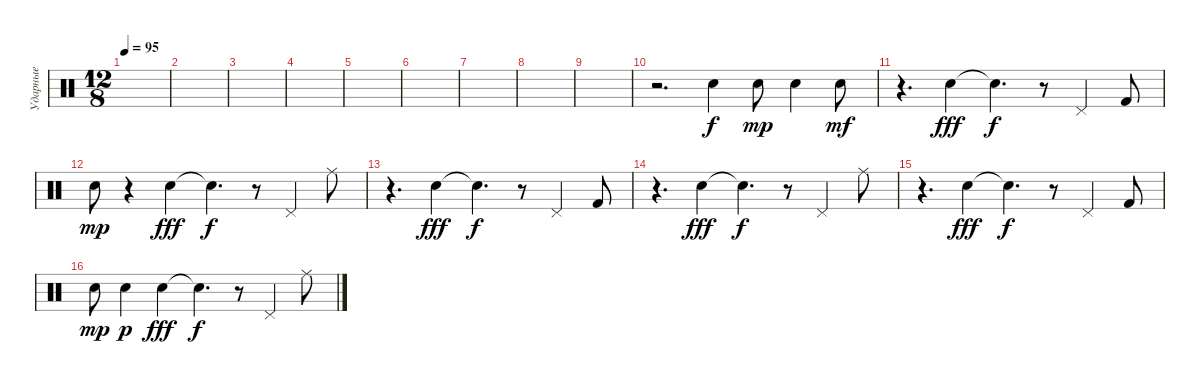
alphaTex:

\track ("Ударные" "Ударные") {instrument percussion}
\staff {score}
\articulation defaults
\ts (12 8)
\tempo 95
\clef neutral
\ks c
|
|
|
|
|
|
|
|
|
r.2{d} "Snare (hit) 2".4 "Snare (hit) 2".8{dy mp} "Snare (hit) 2".4 "Snare (hit) 2".8{dy mf} |
r.4{d} "Electric Snare (hit)".4{dy fff} "Snare (hit)"{t}.4{d dy f} r.8 "Pedal Hi-Hat (hit)".4 "Kick (hit) 2".8 |
"Snare (hit) 2".8{dy mp} r.4 "Electric Snare (hit)".4{dy fff} "Snare (hit)"{t}.4{d dy f} r.8 "Pedal Hi-Hat (hit)".4 "Ride (middle)".8 |
r.4{d} "Electric Snare (hit)".4{dy fff} "Snare (hit)"{t}.4{d dy f} r.8 "Pedal Hi-Hat (hit)".4 "Kick (hit) 2".8 |
r.4{d} "Electric Snare (hit)".4{dy fff} "Snare (hit)"{t}.4{d dy f} r.8 "Pedal Hi-Hat (hit)".4 "Ride (middle)".8 |
r.4{d} "Electric Snare (hit)".4{dy fff} "Snare (hit)"{t}.4{d dy f} r.8 "Pedal Hi-Hat (hit)".4 "Kick (hit) 2".8 |
"Snare (hit) 2".8{dy mp} "Snare (hit) 2".4{dy p} "Electric Snare (hit)".4{dy fff} "Snare (hit)"{t}.4{d dy f} r.8 "Pedal Hi-Hat (hit)".4 "Ride (middle)".8
